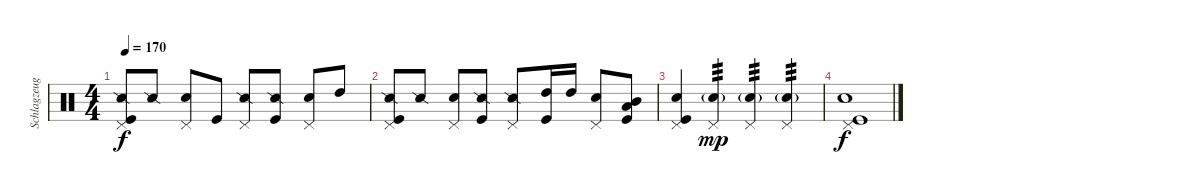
\track ("Schlagzeug" "Schlagzeug") {instrument percussion}
\staff {score}
\articulation defaults
\ts (4 4)
\tempo 170
\clef neutral
\ks c
("Snare (side stick) 2" "Pedal Hi-Hat (hit)" "Kick (hit)").8{dy f} "Snare (side stick) 2".8 ("Electric Snare (hit)" "Pedal Hi-Hat (hit)").8 "Kick (hit)".8 ("Snare (side stick) 2" "Pedal Hi-Hat (hit)").8 ("Snare (side stick) 2" "Kick (hit)").8 ("Electric Snare (hit)" "Pedal Hi-Hat (hit)").8 "High Tom (hit)".8 |
("Snare (side stick) 2" "Pedal Hi-Hat (hit)" "Kick (hit)").8 "Snare (side stick) 2".8 ("Electric Snare (hit)" "Pedal Hi-Hat (hit)").8 ("Snare (side stick) 2" "Kick (hit)").8 ("Snare (side stick) 2" "Pedal Hi-Hat (hit)").8 ("High Tom (hit)" "Kick (hit)").16 "High Tom (hit)".16 ("Electric Snare (hit)" "Pedal Hi-Hat (hit)").8 ("Mid Tom (hit)" "Low Tom (hit)" "Kick (hit)").8 |
("Pedal Hi-Hat (hit)" "Electric Snare (hit)" "Kick (hit)").4 ("Electric Snare (hit)"{g} "Pedal Hi-Hat (hit)").4{tp 3 dy mp} ("Electric Snare (hit)"{g} "Pedal Hi-Hat (hit)").4{tp 3} ("Electric Snare (hit)"{g} "Pedal Hi-Hat (hit)").4{tp 3} |
("Pedal Hi-Hat (hit)" "Electric Snare (hit)" "Kick (hit)").1{dy f}
